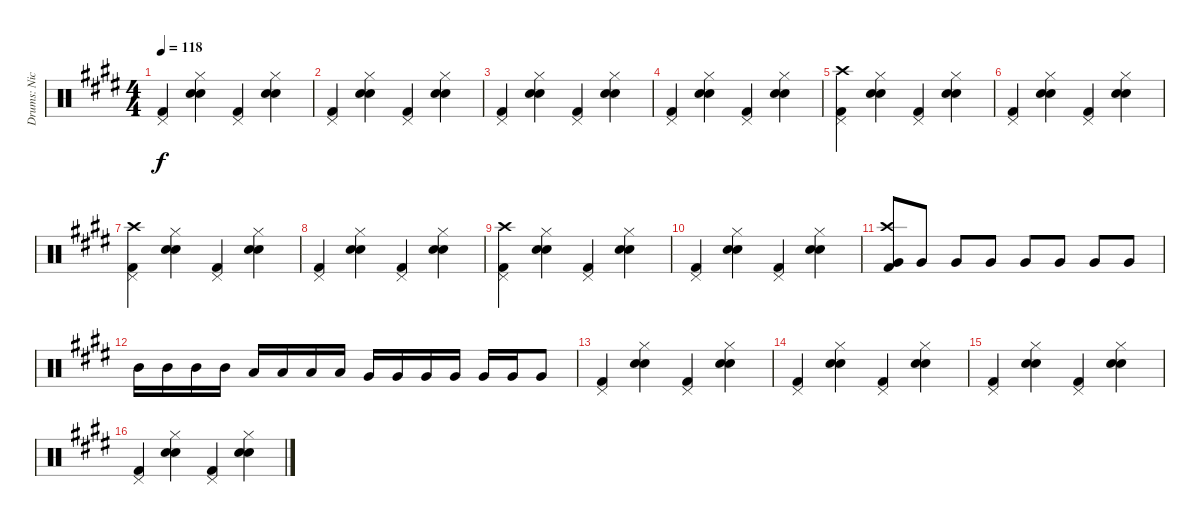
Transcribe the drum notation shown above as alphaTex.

\track ("Drums: Nick" "Drums: Nic") {instrument percussion}
\staff {score}
\articulation defaults
\ts (4 4)
\tempo 118
\clef neutral
\ks e
("Pedal Hi-Hat (hit)" "Kick (hit) 2").4{dy f} ("Hi-Hat (closed)" "Electric Snare (hit)" "Hand Clap (hit)").4 ("Pedal Hi-Hat (hit)" "Kick (hit) 2").4 ("Hi-Hat (closed)" "Electric Snare (hit)" "Hand Clap (hit)").4 |
("Pedal Hi-Hat (hit)" "Kick (hit) 2").4 ("Hi-Hat (closed)" "Electric Snare (hit)" "Hand Clap (hit)").4 ("Pedal Hi-Hat (hit)" "Kick (hit) 2").4 ("Hi-Hat (closed)" "Electric Snare (hit)" "Hand Clap (hit)").4 |
("Pedal Hi-Hat (hit)" "Kick (hit) 2").4 ("Hi-Hat (closed)" "Electric Snare (hit)" "Hand Clap (hit)").4 ("Pedal Hi-Hat (hit)" "Kick (hit) 2").4 ("Hi-Hat (closed)" "Electric Snare (hit)" "Hand Clap (hit)").4 |
("Pedal Hi-Hat (hit)" "Kick (hit) 2").4 ("Hi-Hat (closed)" "Electric Snare (hit)" "Hand Clap (hit)").4 ("Pedal Hi-Hat (hit)" "Kick (hit) 2").4 ("Hi-Hat (closed)" "Electric Snare (hit)" "Hand Clap (hit)").4 |
("Crash high (hit)" "Pedal Hi-Hat (hit)" "Kick (hit) 2").4 ("Hi-Hat (closed)" "Electric Snare (hit)" "Hand Clap (hit)").4 ("Pedal Hi-Hat (hit)" "Kick (hit) 2").4 ("Hi-Hat (closed)" "Electric Snare (hit)" "Hand Clap (hit)").4 |
("Pedal Hi-Hat (hit)" "Kick (hit) 2").4 ("Hi-Hat (closed)" "Electric Snare (hit)" "Hand Clap (hit)").4 ("Pedal Hi-Hat (hit)" "Kick (hit) 2").4 ("Hi-Hat (closed)" "Electric Snare (hit)" "Hand Clap (hit)").4 |
("Crash high (hit)" "Pedal Hi-Hat (hit)" "Kick (hit) 2").4 ("Hi-Hat (closed)" "Electric Snare (hit)" "Hand Clap (hit)").4 ("Pedal Hi-Hat (hit)" "Kick (hit) 2").4 ("Hi-Hat (closed)" "Electric Snare (hit)" "Hand Clap (hit)").4 |
("Pedal Hi-Hat (hit)" "Kick (hit) 2").4 ("Hi-Hat (closed)" "Electric Snare (hit)" "Hand Clap (hit)").4 ("Pedal Hi-Hat (hit)" "Kick (hit) 2").4 ("Hi-Hat (closed)" "Electric Snare (hit)" "Hand Clap (hit)").4 |
("Crash high (hit)" "Pedal Hi-Hat (hit)" "Kick (hit) 2").4 ("Hi-Hat (closed)" "Electric Snare (hit)" "Hand Clap (hit)").4 ("Pedal Hi-Hat (hit)" "Kick (hit) 2").4 ("Hi-Hat (closed)" "Electric Snare (hit)" "Hand Clap (hit)").4 |
("Pedal Hi-Hat (hit)" "Kick (hit) 2").4 ("Hi-Hat (closed)" "Electric Snare (hit)" "Hand Clap (hit)").4 ("Pedal Hi-Hat (hit)" "Kick (hit) 2").4 ("Hi-Hat (closed)" "Electric Snare (hit)" "Hand Clap (hit)").4 |
("Crash high (hit)" "Kick (hit) 2" "Very Low Tom (hit)").8 "Very Low Tom (hit)".8 "Very Low Tom (hit)".8 "Very Low Tom (hit)".8 "Very Low Tom (hit)".8 "Very Low Tom (hit)".8 "Very Low Tom (hit)".8 "Very Low Tom (hit)".8 |
"Mid Tom (hit)".16 "Mid Tom (hit)".16 "Mid Tom (hit)".16 "Mid Tom (hit)".16 "Low Tom (hit)".16 "Low Tom (hit)".16 "Low Tom (hit)".16 "Low Tom (hit)".16 "Very Low Tom (hit)".16 "Very Low Tom (hit)".16 "Very Low Tom (hit)".16 "Very Low Tom (hit)".16 "Very Low Tom (hit)".16 "Very Low Tom (hit)".16 "Very Low Tom (hit)".8 |
("Pedal Hi-Hat (hit)" "Kick (hit) 2").4 ("Hi-Hat (closed)" "Electric Snare (hit)" "Hand Clap (hit)").4 ("Pedal Hi-Hat (hit)" "Kick (hit) 2").4 ("Hi-Hat (closed)" "Electric Snare (hit)" "Hand Clap (hit)").4 |
("Pedal Hi-Hat (hit)" "Kick (hit) 2").4 ("Hi-Hat (closed)" "Electric Snare (hit)" "Hand Clap (hit)").4 ("Pedal Hi-Hat (hit)" "Kick (hit) 2").4 ("Hi-Hat (closed)" "Electric Snare (hit)" "Hand Clap (hit)").4 |
("Pedal Hi-Hat (hit)" "Kick (hit) 2").4 ("Hi-Hat (closed)" "Electric Snare (hit)" "Hand Clap (hit)").4 ("Pedal Hi-Hat (hit)" "Kick (hit) 2").4 ("Hi-Hat (closed)" "Electric Snare (hit)" "Hand Clap (hit)").4 |
("Pedal Hi-Hat (hit)" "Kick (hit) 2").4 ("Hi-Hat (closed)" "Electric Snare (hit)" "Hand Clap (hit)").4 ("Pedal Hi-Hat (hit)" "Kick (hit) 2").4 ("Hi-Hat (closed)" "Electric Snare (hit)" "Hand Clap (hit)").4
